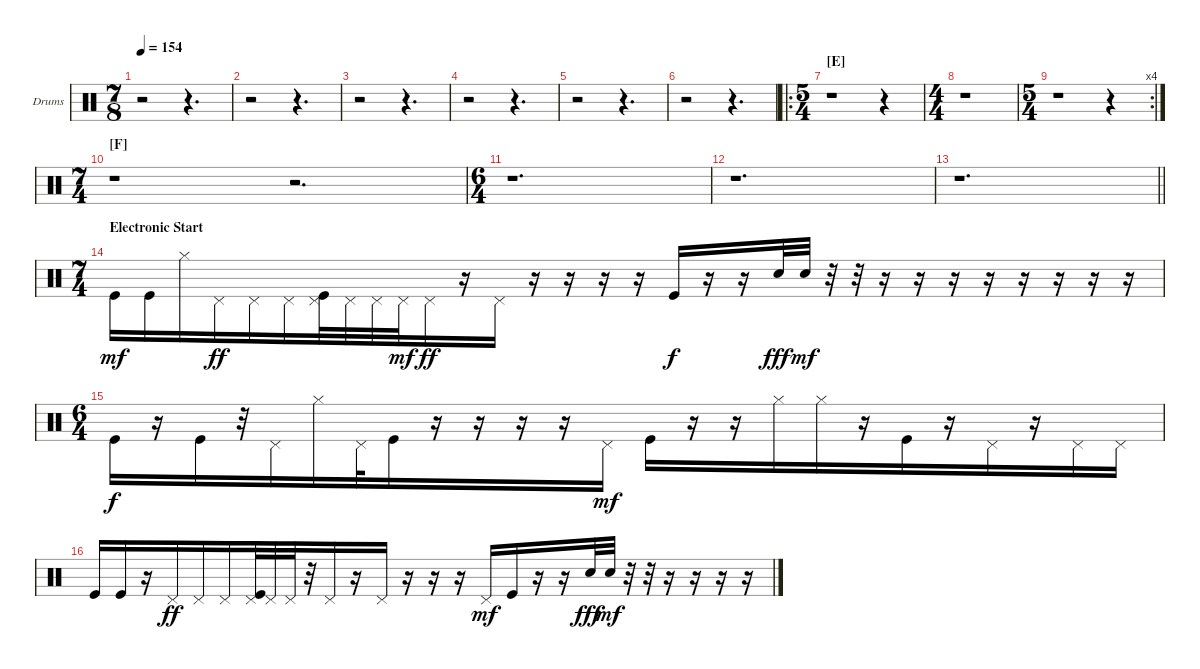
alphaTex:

\bracketExtendMode groupsimilarinstruments
\firstSystemTrackNameOrientation horizontal
\otherSystemsTrackNameOrientation horizontal
\track ("Navene Koperweis" "Drums") {instrument percussion}
\staff {score}
\articulation defaults
\ts (7 8)
\tempo 154
\clef neutral
\ks c
r.2{dy mf} r.4{d} |
r.2 r.4{d} |
r.2 r.4{d} |
r.2 r.4{d} |
r.2 r.4{d} |
r.2 r.4{d} |
\ro
\ts (5 4)
\beaming (8 6 4)
\section ("E" "")
r.1 r.4 |
\ts (4 4)
\beaming (8 2 2 2 2)
r.1 |
\rc 4
\ts (5 4)
\beaming (8 6 4)
r.1 r.4 |
\ts (7 4)
\beaming (8 6 4 4)
\section ("F" "")
r.1 r.2{d} |
\ts (6 4)
\beaming (8 6 6)
r.1{d} |
r.1{d} |
\beaming (8 2 2 2 6)
\barLineRight lightlight
r.1{d} |
\ts (7 4)
\beaming (8 6 4 4)
\section ("" "Electronic Start")
"Kick (hit)".16 "Kick (hit)".16 "Hi-Hat (closed)".16 "Pedal Hi-Hat (hit)".16{dy ff} "Pedal Hi-Hat (hit)".16 "Pedal Hi-Hat (hit)".16 ("Pedal Hi-Hat (hit)" "Kick (hit)").32 "Pedal Hi-Hat (hit)".32 "Pedal Hi-Hat (hit)".32 "Pedal Hi-Hat (hit)".32{dy mf} "Pedal Hi-Hat (hit)".16{dy ff} r.16 "Pedal Hi-Hat (hit)".16 r.16 r.16 r.16 r.16 "Kick (hit)".16{dy f} r.16 r.16 "Snare (hit) 2".32{dy fff} "Snare (hit) 2".32{dy mf} r.32 r.32 r.16 r.16 r.16 r.16 r.16 r.16 r.16 r.16 |
\ts (6 4)
\beaming (8 6 6)
"Kick (hit)".16{dy f} r.16 "Kick (hit)".16 r.32 "Pedal Hi-Hat (hit)".16 "Hi-Hat (closed)".16 "Pedal Hi-Hat (hit)".32 "Kick (hit)".16 r.16 r.16 r.16 r.16 "Pedal Hi-Hat (hit)".16{dy mf} "Kick (hit)".16 r.16 r.16 "Hi-Hat (closed)".16 "Hi-Hat (closed)".16 r.16 "Kick (hit)".16 r.16 "Pedal Hi-Hat (hit)".16 r.16 "Pedal Hi-Hat (hit)".16 "Pedal Hi-Hat (hit)".16 |
"Kick (hit)".16 "Kick (hit)".16 r.16 "Pedal Hi-Hat (hit)".16{dy ff} "Pedal Hi-Hat (hit)".16 "Pedal Hi-Hat (hit)".16 ("Pedal Hi-Hat (hit)" "Kick (hit)").32 "Pedal Hi-Hat (hit)".32 "Pedal Hi-Hat (hit)".32 r.32 "Pedal Hi-Hat (hit)".16 r.16 "Pedal Hi-Hat (hit)".16 r.16 r.16 r.16 "Pedal Hi-Hat (hit)".16{dy mf} "Kick (hit)".16 r.16 r.16 "Snare (hit) 2".32{dy fff} "Snare (hit) 2".32{dy mf} r.32 r.32 r.16 r.16 r.16 r.16
